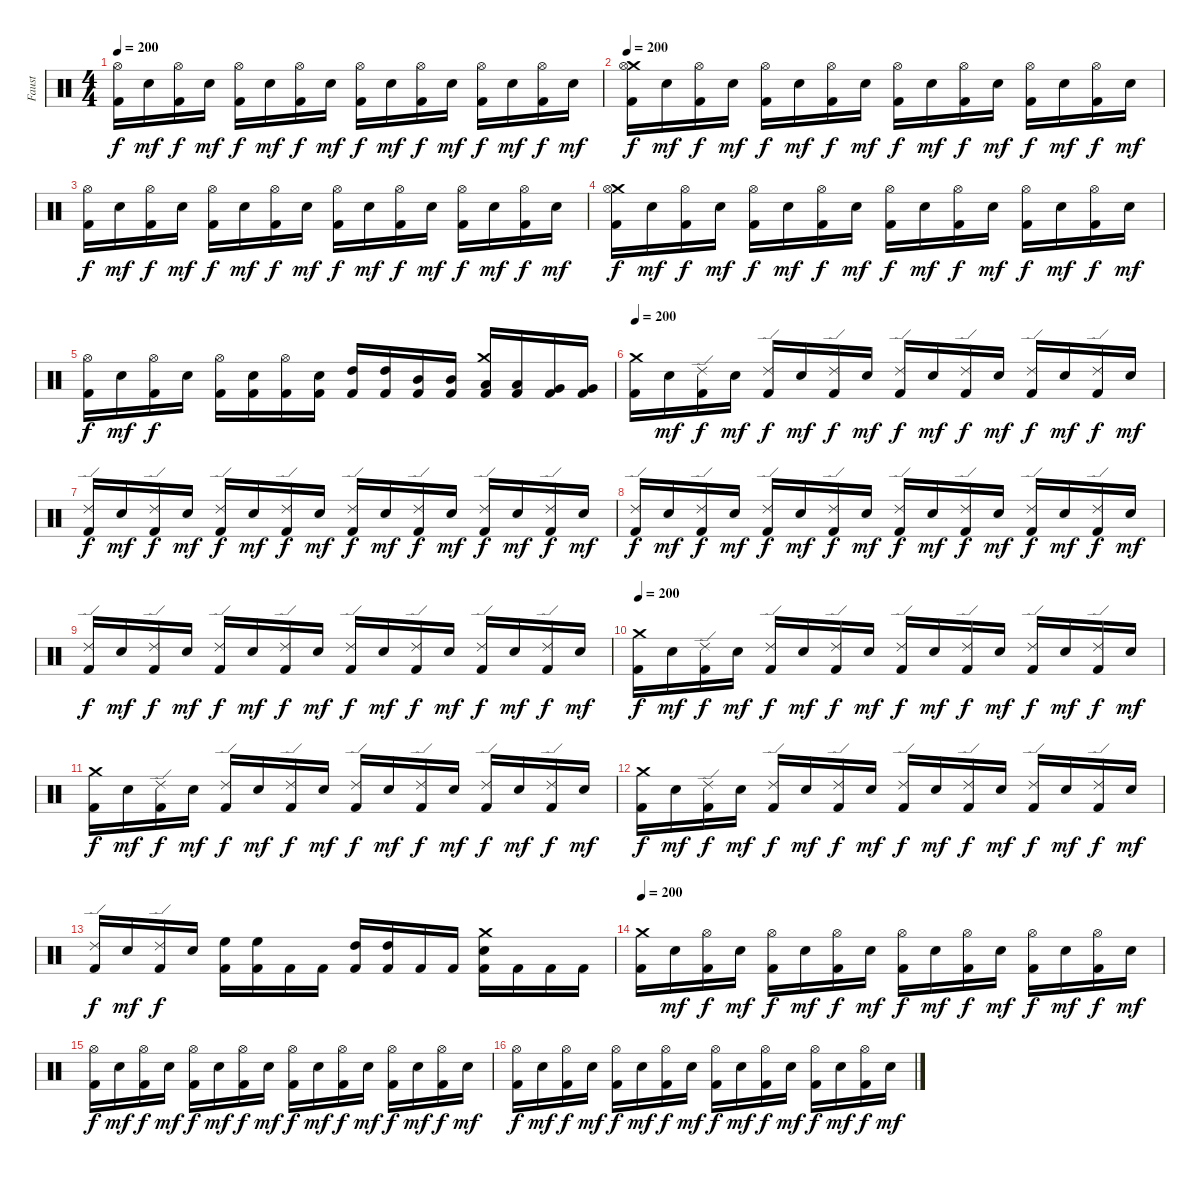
\track ("Faust" "Faust") {instrument percussion}
\staff {score}
\articulation defaults
\ts (4 4)
\tempo 200
\clef neutral
\ks c
("Hi-Hat (open)" "Kick (hit) 2").16{dy f} "Electric Snare (hit)".16{dy mf} ("Hi-Hat (open)" "Kick (hit) 2").16{dy f} "Electric Snare (hit)".16{dy mf} ("Hi-Hat (open)" "Kick (hit) 2").16{dy f} "Electric Snare (hit)".16{dy mf} ("Hi-Hat (open)" "Kick (hit) 2").16{dy f} "Electric Snare (hit)".16{dy mf} ("Hi-Hat (open)" "Kick (hit) 2").16{dy f} "Electric Snare (hit)".16{dy mf} ("Hi-Hat (open)" "Kick (hit) 2").16{dy f} "Electric Snare (hit)".16{dy mf} ("Hi-Hat (open)" "Kick (hit) 2").16{dy f} "Electric Snare (hit)".16{dy mf} ("Hi-Hat (open)" "Kick (hit) 2").16{dy f} "Electric Snare (hit)".16{dy mf} |
\tempo 200
("Crash medium (hit)" "Hi-Hat (open)" "Kick (hit) 2").16{dy f} "Electric Snare (hit)".16{dy mf} ("Hi-Hat (open)" "Kick (hit) 2").16{dy f} "Electric Snare (hit)".16{dy mf} ("Hi-Hat (open)" "Kick (hit) 2").16{dy f} "Electric Snare (hit)".16{dy mf} ("Hi-Hat (open)" "Kick (hit) 2").16{dy f} "Electric Snare (hit)".16{dy mf} ("Hi-Hat (open)" "Kick (hit) 2").16{dy f} "Electric Snare (hit)".16{dy mf} ("Hi-Hat (open)" "Kick (hit) 2").16{dy f} "Electric Snare (hit)".16{dy mf} ("Hi-Hat (open)" "Kick (hit) 2").16{dy f} "Electric Snare (hit)".16{dy mf} ("Hi-Hat (open)" "Kick (hit) 2").16{dy f} "Electric Snare (hit)".16{dy mf} |
("Hi-Hat (open)" "Kick (hit) 2").16{dy f} "Electric Snare (hit)".16{dy mf} ("Hi-Hat (open)" "Kick (hit) 2").16{dy f} "Electric Snare (hit)".16{dy mf} ("Hi-Hat (open)" "Kick (hit) 2").16{dy f} "Electric Snare (hit)".16{dy mf} ("Hi-Hat (open)" "Kick (hit) 2").16{dy f} "Electric Snare (hit)".16{dy mf} ("Hi-Hat (open)" "Kick (hit) 2").16{dy f} "Electric Snare (hit)".16{dy mf} ("Hi-Hat (open)" "Kick (hit) 2").16{dy f} "Electric Snare (hit)".16{dy mf} ("Hi-Hat (open)" "Kick (hit) 2").16{dy f} "Electric Snare (hit)".16{dy mf} ("Hi-Hat (open)" "Kick (hit) 2").16{dy f} "Electric Snare (hit)".16{dy mf} |
("Crash medium (hit)" "Hi-Hat (open)" "Kick (hit) 2").16{dy f} "Electric Snare (hit)".16{dy mf} ("Hi-Hat (open)" "Kick (hit) 2").16{dy f} "Electric Snare (hit)".16{dy mf} ("Hi-Hat (open)" "Kick (hit) 2").16{dy f} "Electric Snare (hit)".16{dy mf} ("Hi-Hat (open)" "Kick (hit) 2").16{dy f} "Electric Snare (hit)".16{dy mf} ("Hi-Hat (open)" "Kick (hit) 2").16{dy f} "Electric Snare (hit)".16{dy mf} ("Hi-Hat (open)" "Kick (hit) 2").16{dy f} "Electric Snare (hit)".16{dy mf} ("Hi-Hat (open)" "Kick (hit) 2").16{dy f} "Electric Snare (hit)".16{dy mf} ("Hi-Hat (open)" "Kick (hit) 2").16{dy f} "Electric Snare (hit)".16{dy mf} |
("Hi-Hat (open)" "Kick (hit) 2").16{dy f} "Electric Snare (hit)".16{dy mf} ("Hi-Hat (open)" "Kick (hit) 2").16{dy f} "Electric Snare (hit)".16 ("Hi-Hat (open)" "Kick (hit) 2").16 ("Electric Snare (hit)" "Kick (hit) 2").16 ("Hi-Hat (open)" "Kick (hit) 2").16 ("Electric Snare (hit)" "Kick (hit) 2").16 ("High Tom (hit)" "Kick (hit) 2").16 ("High Tom (hit)" "Kick (hit) 2").16 ("Mid Tom (hit)" "Kick (hit) 2").16 ("Mid Tom (hit)" "Kick (hit) 2").16 ("Crash medium (hit)" "Low Tom (hit)" "Kick (hit) 2").16 ("Low Tom (hit)" "Kick (hit) 2").16 ("Very Low Tom (hit)" "Kick (hit) 2").16 ("Very Low Tom (hit)" "Kick (hit) 2").16 |
\tempo 200
("Crash medium (hit)" "Kick (hit) 2").16 "Electric Snare (hit)".16{dy mf} ("Ride (edge) 2" "Kick (hit) 2").16{dy f} "Electric Snare (hit)".16{dy mf} ("Ride (edge) 2" "Kick (hit) 2").16{dy f} "Electric Snare (hit)".16{dy mf} ("Ride (edge) 2" "Kick (hit) 2").16{dy f} "Electric Snare (hit)".16{dy mf} ("Ride (edge) 2" "Kick (hit) 2").16{dy f} "Electric Snare (hit)".16{dy mf} ("Ride (edge) 2" "Kick (hit) 2").16{dy f} "Electric Snare (hit)".16{dy mf} ("Ride (edge) 2" "Kick (hit) 2").16{dy f} "Electric Snare (hit)".16{dy mf} ("Ride (edge) 2" "Kick (hit) 2").16{dy f} "Electric Snare (hit)".16{dy mf} |
("Ride (edge) 2" "Kick (hit) 2").16{dy f} "Electric Snare (hit)".16{dy mf} ("Ride (edge) 2" "Kick (hit) 2").16{dy f} "Electric Snare (hit)".16{dy mf} ("Ride (edge) 2" "Kick (hit) 2").16{dy f} "Electric Snare (hit)".16{dy mf} ("Ride (edge) 2" "Kick (hit) 2").16{dy f} "Electric Snare (hit)".16{dy mf} ("Ride (edge) 2" "Kick (hit) 2").16{dy f} "Electric Snare (hit)".16{dy mf} ("Ride (edge) 2" "Kick (hit) 2").16{dy f} "Electric Snare (hit)".16{dy mf} ("Ride (edge) 2" "Kick (hit) 2").16{dy f} "Electric Snare (hit)".16{dy mf} ("Ride (edge) 2" "Kick (hit) 2").16{dy f} "Electric Snare (hit)".16{dy mf} |
("Ride (edge) 2" "Kick (hit) 2").16{dy f} "Electric Snare (hit)".16{dy mf} ("Ride (edge) 2" "Kick (hit) 2").16{dy f} "Electric Snare (hit)".16{dy mf} ("Ride (edge) 2" "Kick (hit) 2").16{dy f} "Electric Snare (hit)".16{dy mf} ("Ride (edge) 2" "Kick (hit) 2").16{dy f} "Electric Snare (hit)".16{dy mf} ("Ride (edge) 2" "Kick (hit) 2").16{dy f} "Electric Snare (hit)".16{dy mf} ("Ride (edge) 2" "Kick (hit) 2").16{dy f} "Electric Snare (hit)".16{dy mf} ("Ride (edge) 2" "Kick (hit) 2").16{dy f} "Electric Snare (hit)".16{dy mf} ("Ride (edge) 2" "Kick (hit) 2").16{dy f} "Electric Snare (hit)".16{dy mf} |
("Ride (edge) 2" "Kick (hit) 2").16{dy f} "Electric Snare (hit)".16{dy mf} ("Ride (edge) 2" "Kick (hit) 2").16{dy f} "Electric Snare (hit)".16{dy mf} ("Ride (edge) 2" "Kick (hit) 2").16{dy f} "Electric Snare (hit)".16{dy mf} ("Ride (edge) 2" "Kick (hit) 2").16{dy f} "Electric Snare (hit)".16{dy mf} ("Ride (edge) 2" "Kick (hit) 2").16{dy f} "Electric Snare (hit)".16{dy mf} ("Ride (edge) 2" "Kick (hit) 2").16{dy f} "Electric Snare (hit)".16{dy mf} ("Ride (edge) 2" "Kick (hit) 2").16{dy f} "Electric Snare (hit)".16{dy mf} ("Ride (edge) 2" "Kick (hit) 2").16{dy f} "Electric Snare (hit)".16{dy mf} |
\tempo 200
("Crash medium (hit)" "Kick (hit) 2").16{dy f} "Electric Snare (hit)".16{dy mf} ("Ride (edge) 2" "Kick (hit) 2").16{dy f} "Electric Snare (hit)".16{dy mf} ("Ride (edge) 2" "Kick (hit) 2").16{dy f} "Electric Snare (hit)".16{dy mf} ("Ride (edge) 2" "Kick (hit) 2").16{dy f} "Electric Snare (hit)".16{dy mf} ("Ride (edge) 2" "Kick (hit) 2").16{dy f} "Electric Snare (hit)".16{dy mf} ("Ride (edge) 2" "Kick (hit) 2").16{dy f} "Electric Snare (hit)".16{dy mf} ("Ride (edge) 2" "Kick (hit) 2").16{dy f} "Electric Snare (hit)".16{dy mf} ("Ride (edge) 2" "Kick (hit) 2").16{dy f} "Electric Snare (hit)".16{dy mf} |
("Crash medium (hit)" "Kick (hit) 2").16{dy f} "Electric Snare (hit)".16{dy mf} ("Ride (edge) 2" "Kick (hit) 2").16{dy f} "Electric Snare (hit)".16{dy mf} ("Ride (edge) 2" "Kick (hit) 2").16{dy f} "Electric Snare (hit)".16{dy mf} ("Ride (edge) 2" "Kick (hit) 2").16{dy f} "Electric Snare (hit)".16{dy mf} ("Ride (edge) 2" "Kick (hit) 2").16{dy f} "Electric Snare (hit)".16{dy mf} ("Ride (edge) 2" "Kick (hit) 2").16{dy f} "Electric Snare (hit)".16{dy mf} ("Ride (edge) 2" "Kick (hit) 2").16{dy f} "Electric Snare (hit)".16{dy mf} ("Ride (edge) 2" "Kick (hit) 2").16{dy f} "Electric Snare (hit)".16{dy mf} |
("Crash medium (hit)" "Kick (hit) 2").16{dy f} "Electric Snare (hit)".16{dy mf} ("Ride (edge) 2" "Kick (hit) 2").16{dy f} "Electric Snare (hit)".16{dy mf} ("Ride (edge) 2" "Kick (hit) 2").16{dy f} "Electric Snare (hit)".16{dy mf} ("Ride (edge) 2" "Kick (hit) 2").16{dy f} "Electric Snare (hit)".16{dy mf} ("Ride (edge) 2" "Kick (hit) 2").16{dy f} "Electric Snare (hit)".16{dy mf} ("Ride (edge) 2" "Kick (hit) 2").16{dy f} "Electric Snare (hit)".16{dy mf} ("Ride (edge) 2" "Kick (hit) 2").16{dy f} "Electric Snare (hit)".16{dy mf} ("Ride (edge) 2" "Kick (hit) 2").16{dy f} "Electric Snare (hit)".16{dy mf} |
("Ride (edge) 2" "Kick (hit) 2").16{dy f} "Electric Snare (hit)".16{dy mf} ("Ride (edge) 2" "Kick (hit) 2").16{dy f} "Electric Snare (hit)".16 ("High Floor Tom (hit)" "Kick (hit) 2").16 ("High Floor Tom (hit)" "Kick (hit) 2").16 "Kick (hit) 2".16 "Kick (hit) 2".16 ("High Tom (hit)" "Kick (hit) 2").16 ("High Tom (hit)" "Kick (hit) 2").16 "Kick (hit) 2".16 "Kick (hit) 2".16 ("Crash medium (hit)" "Electric Snare (hit)" "Kick (hit) 2").16 "Kick (hit) 2".16 "Kick (hit) 2".16 "Kick (hit) 2".16 |
\tempo 200
("Crash medium (hit)" "Kick (hit) 2").16 "Electric Snare (hit)".16{dy mf} ("Hi-Hat (open)" "Kick (hit) 2").16{dy f} "Electric Snare (hit)".16{dy mf} ("Hi-Hat (open)" "Kick (hit) 2").16{dy f} "Electric Snare (hit)".16{dy mf} ("Hi-Hat (open)" "Kick (hit) 2").16{dy f} "Electric Snare (hit)".16{dy mf} ("Hi-Hat (open)" "Kick (hit) 2").16{dy f} "Electric Snare (hit)".16{dy mf} ("Hi-Hat (open)" "Kick (hit) 2").16{dy f} "Electric Snare (hit)".16{dy mf} ("Hi-Hat (open)" "Kick (hit) 2").16{dy f} "Electric Snare (hit)".16{dy mf} ("Hi-Hat (open)" "Kick (hit) 2").16{dy f} "Electric Snare (hit)".16{dy mf} |
("Hi-Hat (open)" "Kick (hit) 2").16{dy f} "Electric Snare (hit)".16{dy mf} ("Hi-Hat (open)" "Kick (hit) 2").16{dy f} "Electric Snare (hit)".16{dy mf} ("Hi-Hat (open)" "Kick (hit) 2").16{dy f} "Electric Snare (hit)".16{dy mf} ("Hi-Hat (open)" "Kick (hit) 2").16{dy f} "Electric Snare (hit)".16{dy mf} ("Hi-Hat (open)" "Kick (hit) 2").16{dy f} "Electric Snare (hit)".16{dy mf} ("Hi-Hat (open)" "Kick (hit) 2").16{dy f} "Electric Snare (hit)".16{dy mf} ("Hi-Hat (open)" "Kick (hit) 2").16{dy f} "Electric Snare (hit)".16{dy mf} ("Hi-Hat (open)" "Kick (hit) 2").16{dy f} "Electric Snare (hit)".16{dy mf} |
("Hi-Hat (open)" "Kick (hit) 2").16{dy f} "Electric Snare (hit)".16{dy mf} ("Hi-Hat (open)" "Kick (hit) 2").16{dy f} "Electric Snare (hit)".16{dy mf} ("Hi-Hat (open)" "Kick (hit) 2").16{dy f} "Electric Snare (hit)".16{dy mf} ("Hi-Hat (open)" "Kick (hit) 2").16{dy f} "Electric Snare (hit)".16{dy mf} ("Hi-Hat (open)" "Kick (hit) 2").16{dy f} "Electric Snare (hit)".16{dy mf} ("Hi-Hat (open)" "Kick (hit) 2").16{dy f} "Electric Snare (hit)".16{dy mf} ("Hi-Hat (open)" "Kick (hit) 2").16{dy f} "Electric Snare (hit)".16{dy mf} ("Hi-Hat (open)" "Kick (hit) 2").16{dy f} "Electric Snare (hit)".16{dy mf}
